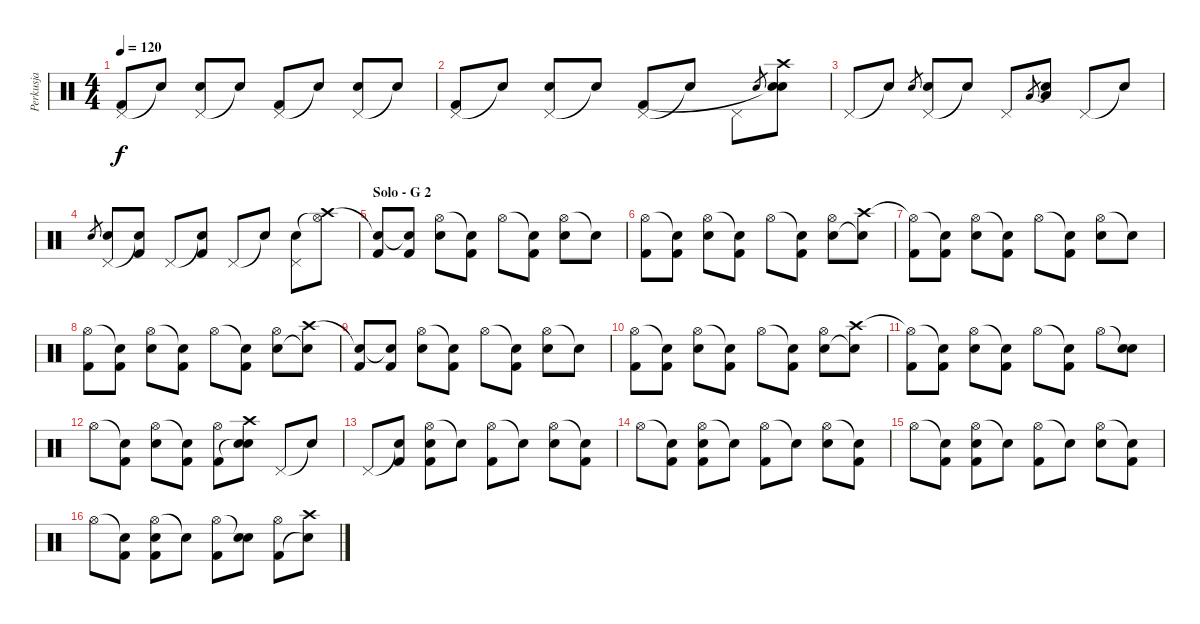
\track ("Perkusja" "Perkusja") {instrument percussion}
\staff {score}
\articulation defaults
\ts (4 4)
\tempo 120
\clef neutral
\ks c
("Pedal Hi-Hat (hit)" "Kick (hit) 2").8{dy f} "Snare (hit)"{t}.8 ("Pedal Hi-Hat (hit)" "Electric Snare (hit)").8 "Snare (hit)"{t}.8 ("Pedal Hi-Hat (hit)" "Kick (hit) 2").8 "Snare (hit)"{t}.8 ("Pedal Hi-Hat (hit)" "Electric Snare (hit)").8 "Snare (hit)"{t}.8 |
("Pedal Hi-Hat (hit)" "Kick (hit) 2").8 "Snare (hit)"{t}.8 ("Pedal Hi-Hat (hit)" "Electric Snare (hit)").8 "Snare (hit)"{t}.8 ("Pedal Hi-Hat (hit)" "Kick (hit) 2").8 "Snare (hit)"{t}.8 "Pedal Hi-Hat (hit)".8 "Electric Snare (hit)".8{gr} ("Crash high (hit)" "Snare (hit)"{t} "Electric Snare (hit)").8 |
"Pedal Hi-Hat (hit)".8 "Snare (hit)"{t}.8 "Electric Snare (hit)".8{gr} ("Pedal Hi-Hat (hit)" "Electric Snare (hit)").8 "Snare (hit)"{t}.8 "Pedal Hi-Hat (hit)".8 "Low Tom (hit)".8{gr} ("Snare (hit)"{t} "Low Tom (hit)").8 "Pedal Hi-Hat (hit)".8 "Snare (hit)"{t}.8 |
"Electric Snare (hit)".8{gr} ("Pedal Hi-Hat (hit)" "Electric Snare (hit)").8 ("Snare (hit)"{t} "Kick (hit) 2").8 "Pedal Hi-Hat (hit)".8 ("Snare (hit)"{t} "Kick (hit) 2").8 "Pedal Hi-Hat (hit)".8 "Snare (hit)"{t}.8 ("Pedal Hi-Hat (hit)" "Electric Snare (hit)").8 ("Crash high (hit)" "Hi-Hat (open)"{t}).8 |
\section ("" "Solo - G 2")
("Snare (hit)"{t} "Kick (hit) 2").8 ("Snare (hit)"{t} "Kick (hit) 2").8 ("Hi-Hat (open)" "Electric Snare (hit)").8 ("Snare (hit)"{t} "Kick (hit) 2").8 "Hi-Hat (open)".8 ("Snare (hit)"{t} "Kick (hit) 2").8 ("Hi-Hat (open)" "Electric Snare (hit)").8 "Snare (hit)"{t}.8 |
("Hi-Hat (open)" "Kick (hit) 2").8 ("Snare (hit)"{t} "Kick (hit) 2").8 ("Hi-Hat (open)" "Electric Snare (hit)").8 ("Snare (hit)"{t} "Kick (hit) 2").8 "Hi-Hat (open)".8 ("Snare (hit)"{t} "Kick (hit) 2").8 ("Hi-Hat (open)" "Electric Snare (hit)").8 ("Crash high (hit)" "Snare (hit)"{t}).8 |
("Hi-Hat (open)"{t} "Kick (hit) 2").8 ("Snare (hit)"{t} "Kick (hit) 2").8 ("Hi-Hat (open)" "Electric Snare (hit)").8 ("Snare (hit)"{t} "Kick (hit) 2").8 "Hi-Hat (open)".8 ("Snare (hit)"{t} "Kick (hit) 2").8 ("Hi-Hat (open)" "Electric Snare (hit)").8 "Snare (hit)"{t}.8 |
("Hi-Hat (open)" "Kick (hit) 2").8 ("Snare (hit)"{t} "Kick (hit) 2").8 ("Hi-Hat (open)" "Electric Snare (hit)").8 ("Snare (hit)"{t} "Kick (hit) 2").8 "Hi-Hat (open)".8 ("Snare (hit)"{t} "Kick (hit) 2").8 ("Hi-Hat (open)" "Electric Snare (hit)").8 ("Crash high (hit)" "Snare (hit)"{t}).8 |
("Snare (hit)"{t} "Kick (hit) 2").8 ("Snare (hit)"{t} "Kick (hit) 2").8 ("Hi-Hat (open)" "Electric Snare (hit)").8 ("Snare (hit)"{t} "Kick (hit) 2").8 "Hi-Hat (open)".8 ("Snare (hit)"{t} "Kick (hit) 2").8 ("Hi-Hat (open)" "Electric Snare (hit)").8 "Snare (hit)"{t}.8 |
("Hi-Hat (open)" "Kick (hit) 2").8 ("Snare (hit)"{t} "Kick (hit) 2").8 ("Hi-Hat (open)" "Electric Snare (hit)").8 ("Snare (hit)"{t} "Kick (hit) 2").8 "Hi-Hat (open)".8 ("Snare (hit)"{t} "Kick (hit) 2").8 ("Hi-Hat (open)" "Electric Snare (hit)").8 ("Crash high (hit)" "Snare (hit)"{t}).8 |
("Hi-Hat (open)"{t} "Kick (hit) 2").8 ("Snare (hit)"{t} "Kick (hit) 2").8 ("Hi-Hat (open)" "Electric Snare (hit)").8 ("Snare (hit)"{t} "Kick (hit) 2").8 "Hi-Hat (open)".8 ("Snare (hit)"{t} "Kick (hit) 2").8 "Hi-Hat (open)".8 ("Snare (hit)"{t} "Electric Snare (hit)").8 |
"Hi-Hat (open)".8 ("Snare (hit)"{t} "Kick (hit) 2").8 ("Hi-Hat (open)" "Electric Snare (hit)").8 ("Snare (hit)"{t} "Kick (hit) 2").8 ("Hi-Hat (open)" "Kick (hit) 2").8 ("Crash high (hit)" "Snare (hit)"{t} "Electric Snare (hit)").8 "Pedal Hi-Hat (hit)".8 "Snare (hit)"{t}.8 |
"Pedal Hi-Hat (hit)".8 ("Snare (hit)"{t} "Kick (hit) 2").8 ("Hi-Hat (open)" "Electric Snare (hit)" "Kick (hit) 2").8 "Snare (hit)"{t}.8 ("Hi-Hat (open)" "Kick (hit) 2").8 "Snare (hit)"{t}.8 ("Hi-Hat (open)" "Electric Snare (hit)").8 ("Snare (hit)"{t} "Kick (hit) 2").8 |
"Hi-Hat (open)".8 ("Snare (hit)"{t} "Kick (hit) 2").8 ("Hi-Hat (open)" "Electric Snare (hit)" "Kick (hit) 2").8 "Snare (hit)"{t}.8 ("Hi-Hat (open)" "Kick (hit) 2").8 "Snare (hit)"{t}.8 ("Hi-Hat (open)" "Electric Snare (hit)").8 ("Snare (hit)"{t} "Kick (hit) 2").8 |
"Hi-Hat (open)".8 ("Snare (hit)"{t} "Kick (hit) 2").8 ("Hi-Hat (open)" "Electric Snare (hit)" "Kick (hit) 2").8 "Snare (hit)"{t}.8 ("Hi-Hat (open)" "Kick (hit) 2").8 "Snare (hit)"{t}.8 ("Hi-Hat (open)" "Electric Snare (hit)").8 ("Snare (hit)"{t} "Kick (hit) 2").8 |
"Hi-Hat (open)".8 ("Snare (hit)"{t} "Kick (hit) 2").8 ("Hi-Hat (open)" "Electric Snare (hit)" "Kick (hit) 2").8 "Snare (hit)"{t}.8 ("Hi-Hat (open)" "Kick (hit) 2").8 ("Snare (hit)"{t} "Electric Snare (hit)").8 ("Hi-Hat (open)" "Kick (hit) 2").8 ("Crash high (hit)" "Snare (hit)"{t}).8
